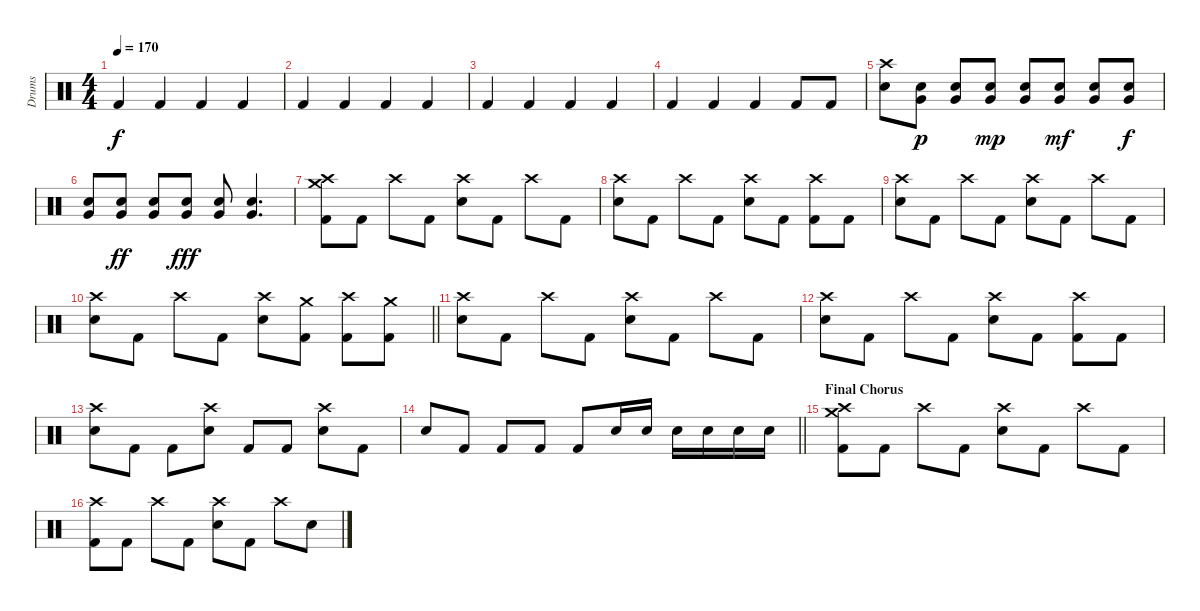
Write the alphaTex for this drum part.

\track ("Drums" "Drums") {instrument percussion}
\staff {score}
\articulation defaults
\ts (4 4)
\tempo 170
\clef neutral
\ks c "Kick (hit) 2".4{dy f} "Kick (hit) 2".4 "Kick (hit) 2".4 "Kick (hit) 2".4
|
"Kick (hit) 2".4 "Kick (hit) 2".4 "Kick (hit) 2".4 "Kick (hit) 2".4 |
"Kick (hit) 2".4 "Kick (hit) 2".4 "Kick (hit) 2".4 "Kick (hit) 2".4 |
"Kick (hit) 2".4 "Kick (hit) 2".4 "Kick (hit) 2".4 "Kick (hit) 2".8 "Kick (hit) 2".8 |
("Crash high (hit)" "Electric Snare (hit)").8 ("Very Low Tom (hit)" "Electric Snare (hit)").8{dy p} ("Very Low Tom (hit)" "Electric Snare (hit)").8 ("Very Low Tom (hit)" "Electric Snare (hit)").8{dy mp} ("Very Low Tom (hit)" "Electric Snare (hit)").8 ("Very Low Tom (hit)" "Electric Snare (hit)").8{dy mf} ("Very Low Tom (hit)" "Electric Snare (hit)").8 ("Very Low Tom (hit)" "Electric Snare (hit)").8{dy f} |
("Very Low Tom (hit)" "Electric Snare (hit)").8 ("Very Low Tom (hit)" "Electric Snare (hit)").8{dy ff} ("Very Low Tom (hit)" "Electric Snare (hit)").8 ("Very Low Tom (hit)" "Electric Snare (hit)").8{dy fff} ("Very Low Tom (hit)" "Electric Snare (hit)").8 ("Very Low Tom (hit)" "Electric Snare (hit)").4{d} |
("Crash high (hit)" "Crash medium (hit)" "Kick (hit) 2").8 "Kick (hit) 2".8 "Crash high (hit)".8 "Kick (hit) 2".8 ("Crash high (hit)" "Electric Snare (hit)").8 "Kick (hit) 2".8 "Crash high (hit)".8 "Kick (hit) 2".8 |
("Crash high (hit)" "Electric Snare (hit)").8 "Kick (hit) 2".8 "Crash high (hit)".8 "Kick (hit) 2".8 ("Crash high (hit)" "Electric Snare (hit)").8 "Kick (hit) 2".8 ("Crash high (hit)" "Kick (hit) 2").8 "Kick (hit) 2".8 |
("Crash high (hit)" "Electric Snare (hit)").8 "Kick (hit) 2".8 "Crash high (hit)".8 "Kick (hit) 2".8 ("Crash high (hit)" "Electric Snare (hit)").8 "Kick (hit) 2".8 "Crash high (hit)".8 "Kick (hit) 2".8 |
\barLineRight lightlight
("Crash high (hit)" "Electric Snare (hit)").8 "Kick (hit) 2".8 "Crash high (hit)".8 "Kick (hit) 2".8 ("Crash high (hit)" "Electric Snare (hit)").8 ("Crash medium (hit)" "Kick (hit) 2").8 ("Crash high (hit)" "Kick (hit) 2").8 ("Crash medium (hit)" "Kick (hit) 2").8 |
("Crash high (hit)" "Electric Snare (hit)").8 "Kick (hit) 2".8 "Crash high (hit)".8 "Kick (hit) 2".8 ("Crash high (hit)" "Electric Snare (hit)").8 "Kick (hit) 2".8 "Crash high (hit)".8 "Kick (hit) 2".8 |
("Crash high (hit)" "Electric Snare (hit)").8 "Kick (hit) 2".8 "Crash high (hit)".8 "Kick (hit) 2".8 ("Crash high (hit)" "Electric Snare (hit)").8 "Kick (hit) 2".8 ("Crash high (hit)" "Kick (hit) 2").8 "Kick (hit) 2".8 |
("Crash high (hit)" "Electric Snare (hit)").8 "Kick (hit) 2".8 "Kick (hit) 2".8 ("Crash high (hit)" "Electric Snare (hit)").8 "Kick (hit) 2".8 "Kick (hit) 2".8 ("Crash high (hit)" "Electric Snare (hit)").8 "Kick (hit) 2".8 |
\barLineRight lightlight "Electric Snare (hit)".8 "Kick (hit) 2".8 "Kick (hit) 2".8 "Kick (hit) 2".8 "Kick (hit) 2".8 "Electric Snare (hit)".16 "Electric Snare (hit)".16 "Electric Snare (hit)".16 "Electric Snare (hit)".16 "Electric Snare (hit)".16 "Electric Snare (hit)".16
|
\section ("" "Final Chorus")
("Crash high (hit)" "Crash medium (hit)" "Kick (hit) 2").8 "Kick (hit) 2".8 "Crash high (hit)".8 "Kick (hit) 2".8 ("Crash high (hit)" "Electric Snare (hit)").8 "Kick (hit) 2".8 "Crash high (hit)".8 "Kick (hit) 2".8 |
("Crash high (hit)" "Kick (hit) 2").8 "Kick (hit) 2".8 "Crash high (hit)".8 "Kick (hit) 2".8 ("Crash high (hit)" "Electric Snare (hit)").8 "Kick (hit) 2".8 "Crash high (hit)".8 "Electric Snare (hit)".8
